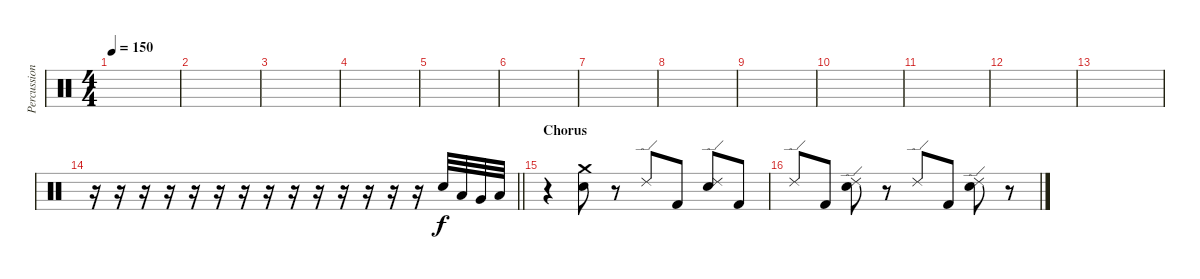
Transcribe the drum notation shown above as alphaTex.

\track ("Percussion" "Percussion") {instrument percussion}
\staff {score}
\articulation defaults
\ts (4 4)
\tempo 150
\clef neutral
\ks c
|
|
|
|
|
|
|
|
|
|
|
|
|
\barLineRight lightlight
r.16 r.16 r.16 r.16 r.16 r.16 r.16 r.16 r.16 r.16 r.16 r.16 r.16 r.16 "Electric Snare (hit)".32 "Low Tom (hit)".32 "Very Low Tom (hit)".32 "Low Tom (hit)".32 |
\section ("" "Chorus")
r.4 ("Crash medium (hit)" "Electric Snare (hit)").8 r.8 "Ride (edge) 2".8 "Kick (hit) 2".8 ("Ride (edge) 2" "Electric Snare (hit)").8 "Kick (hit) 2".8 |
"Ride (edge) 2".8 "Kick (hit) 2".8 ("Ride (edge) 2" "Electric Snare (hit)").8 r.8 "Ride (edge) 2".8 "Kick (hit) 2".8 ("Ride (edge) 2" "Electric Snare (hit)").8 r.8
